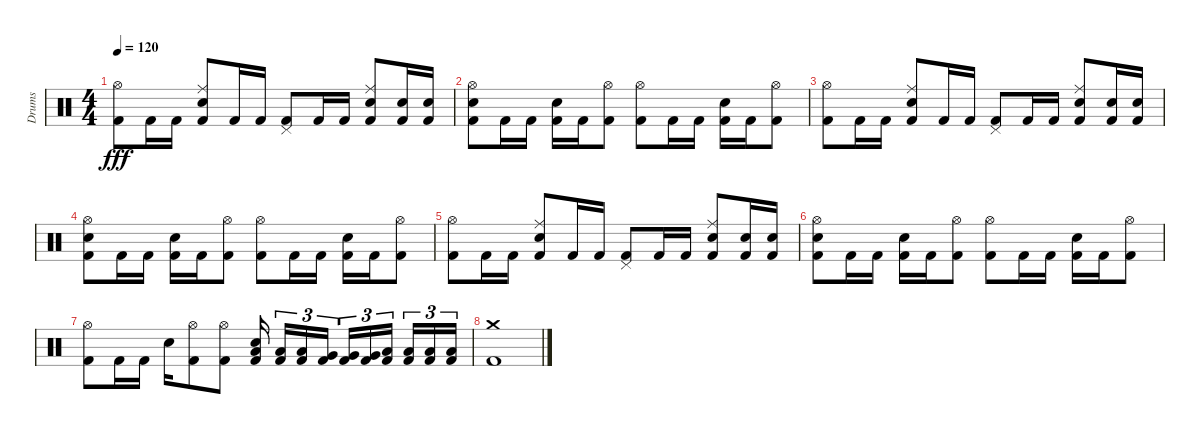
\track ("Drums" "Drums") {instrument percussion}
\staff {score}
\articulation defaults
\ts (4 4)
\tempo 120
\clef neutral
\ks c
("Hi-Hat (open)" "Kick (hit) 2").8{dy fff} "Kick (hit) 2".16 "Kick (hit) 2".16 ("Ride (middle)" "Electric Snare (hit)" "Kick (hit) 2").8 "Kick (hit) 2".16 "Kick (hit) 2".16 ("Pedal Hi-Hat (hit)" "Kick (hit) 2").8 "Kick (hit) 2".16 "Kick (hit) 2".16 ("Ride (middle)" "Electric Snare (hit)" "Kick (hit) 2").8 ("Electric Snare (hit)" "Kick (hit) 2").16 ("Electric Snare (hit)" "Kick (hit) 2").16 |
("Hi-Hat (open)" "Electric Snare (hit)" "Kick (hit) 2").8 "Kick (hit) 2".16 "Kick (hit) 2".16 ("Electric Snare (hit)" "Kick (hit) 2").16 "Kick (hit) 2".16 ("Hi-Hat (open)" "Kick (hit) 2").8 ("Hi-Hat (open)" "Kick (hit) 2").8 "Kick (hit) 2".16 "Kick (hit) 2".16 ("Electric Snare (hit)" "Kick (hit) 2").16 "Kick (hit) 2".16 ("Hi-Hat (open)" "Kick (hit) 2").8 |
("Hi-Hat (open)" "Kick (hit) 2").8 "Kick (hit) 2".16 "Kick (hit) 2".16 ("Ride (middle)" "Electric Snare (hit)" "Kick (hit) 2").8 "Kick (hit) 2".16 "Kick (hit) 2".16 ("Pedal Hi-Hat (hit)" "Kick (hit) 2").8 "Kick (hit) 2".16 "Kick (hit) 2".16 ("Ride (middle)" "Electric Snare (hit)" "Kick (hit) 2").8 ("Electric Snare (hit)" "Kick (hit) 2").16 ("Electric Snare (hit)" "Kick (hit) 2").16 |
("Hi-Hat (open)" "Electric Snare (hit)" "Kick (hit) 2").8 "Kick (hit) 2".16 "Kick (hit) 2".16 ("Electric Snare (hit)" "Kick (hit) 2").16 "Kick (hit) 2".16 ("Hi-Hat (open)" "Kick (hit) 2").8 ("Hi-Hat (open)" "Kick (hit) 2").8 "Kick (hit) 2".16 "Kick (hit) 2".16 ("Electric Snare (hit)" "Kick (hit) 2").16 "Kick (hit) 2".16 ("Hi-Hat (open)" "Kick (hit) 2").8 |
("Hi-Hat (open)" "Kick (hit) 2").8 "Kick (hit) 2".16 "Kick (hit) 2".16 ("Ride (middle)" "Electric Snare (hit)" "Kick (hit) 2").8 "Kick (hit) 2".16 "Kick (hit) 2".16 ("Pedal Hi-Hat (hit)" "Kick (hit) 2").8 "Kick (hit) 2".16 "Kick (hit) 2".16 ("Ride (middle)" "Electric Snare (hit)" "Kick (hit) 2").8 ("Electric Snare (hit)" "Kick (hit) 2").16 ("Electric Snare (hit)" "Kick (hit) 2").16 |
("Hi-Hat (open)" "Electric Snare (hit)" "Kick (hit) 2").8 "Kick (hit) 2".16 "Kick (hit) 2".16 ("Electric Snare (hit)" "Kick (hit) 2").16 "Kick (hit) 2".16 ("Hi-Hat (open)" "Kick (hit) 2").8 ("Hi-Hat (open)" "Kick (hit) 2").8 "Kick (hit) 2".16 "Kick (hit) 2".16 ("Electric Snare (hit)" "Kick (hit) 2").16 "Kick (hit) 2".16 ("Hi-Hat (open)" "Kick (hit) 2").8 |
("Hi-Hat (open)" "Kick (hit) 2").8 "Kick (hit) 2".16 "Kick (hit) 2".16 "Electric Snare (hit)".16 ("Hi-Hat (open)" "Kick (hit) 2").8 ("Hi-Hat (open)" "Kick (hit) 2").8 ("Low Tom (hit)" "Electric Snare (hit)" "Kick (hit) 2").16 ("Low Tom (hit)" "Kick (hit) 2").16{tu (3 2)} ("Low Tom (hit)" "Kick (hit) 2").16{tu (3 2)} ("Very Low Tom (hit)" "Kick (hit) 2").16{tu (3 2)} ("Very Low Tom (hit)" "Kick (hit) 2").16{tu (3 2)} ("Very Low Tom (hit)" "Kick (hit) 2").16{tu (3 2)} ("Low Floor Tom (hit)" "Kick (hit) 2").16{tu (3 2)} ("Low Floor Tom (hit)" "Kick (hit) 2").16{tu (3 2)} ("Low Floor Tom (hit)" "Kick (hit) 2").16{tu (3 2)} ("Low Floor Tom (hit)" "Kick (hit) 2").16{tu (3 2)} |
("Crash medium (hit)" "Kick (hit) 2").1
